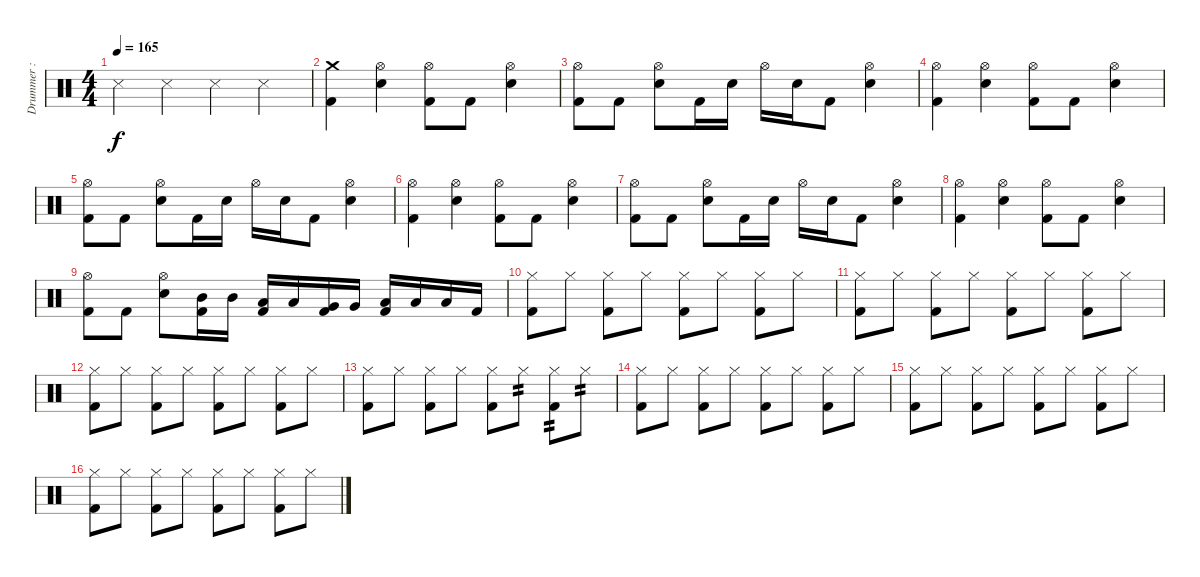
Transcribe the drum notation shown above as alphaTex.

\track ("Drummer : Tainaka Ritsu - Chan" "Drummer : ") {instrument percussion}
\staff {score}
\articulation defaults
\ts (4 4)
\tempo 165
\clef neutral
\ks c "Snare (side stick) 3".4{dy f} "Snare (side stick) 3".4 "Snare (side stick) 3".4 "Snare (side stick) 3".4
|
("Crash medium (hit)" "Kick (hit) 2").4 ("Hi-Hat (open)" "Electric Snare (hit)").4 ("Hi-Hat (open)" "Kick (hit) 2").8 "Kick (hit) 2".8 ("Hi-Hat (open)" "Electric Snare (hit)").4 |
("Hi-Hat (open)" "Kick (hit) 2").8 "Kick (hit) 2".8 ("Hi-Hat (open)" "Electric Snare (hit)").8 "Kick (hit) 2".16 "Electric Snare (hit)".16 "Hi-Hat (open)".16 "Electric Snare (hit)".16 "Kick (hit) 2".8 ("Hi-Hat (open)" "Electric Snare (hit)").4 |
("Hi-Hat (open)" "Kick (hit) 2").4 ("Hi-Hat (open)" "Electric Snare (hit)").4 ("Hi-Hat (open)" "Kick (hit) 2").8 "Kick (hit) 2".8 ("Hi-Hat (open)" "Electric Snare (hit)").4 |
("Hi-Hat (open)" "Kick (hit) 2").8 "Kick (hit) 2".8 ("Hi-Hat (open)" "Electric Snare (hit)").8 "Kick (hit) 2".16 "Electric Snare (hit)".16 "Hi-Hat (open)".16 "Electric Snare (hit)".16 "Kick (hit) 2".8 ("Hi-Hat (open)" "Electric Snare (hit)").4 |
("Hi-Hat (open)" "Kick (hit) 2").4 ("Hi-Hat (open)" "Electric Snare (hit)").4 ("Hi-Hat (open)" "Kick (hit) 2").8 "Kick (hit) 2".8 ("Hi-Hat (open)" "Electric Snare (hit)").4 |
("Hi-Hat (open)" "Kick (hit) 2").8 "Kick (hit) 2".8 ("Hi-Hat (open)" "Electric Snare (hit)").8 "Kick (hit) 2".16 "Electric Snare (hit)".16 "Hi-Hat (open)".16 "Electric Snare (hit)".16 "Kick (hit) 2".8 ("Hi-Hat (open)" "Electric Snare (hit)").4 |
("Hi-Hat (open)" "Kick (hit) 2").4 ("Hi-Hat (open)" "Electric Snare (hit)").4 ("Hi-Hat (open)" "Kick (hit) 2").8 "Kick (hit) 2".8 ("Hi-Hat (open)" "Electric Snare (hit)").4 |
("Hi-Hat (open)" "Kick (hit) 2").8 "Kick (hit) 2".8 ("Hi-Hat (open)" "Electric Snare (hit)").8 ("Mid Tom (hit)" "Kick (hit) 2").16 "Mid Tom (hit)".16 ("Low Tom (hit)" "Kick (hit) 2").16 "Low Tom (hit)".16 ("Very Low Tom (hit)" "Kick (hit) 2").16 "Very Low Tom (hit)".16 ("Low Floor Tom (hit)" "Kick (hit) 2").16 "Low Floor Tom (hit)".16 "Low Floor Tom (hit)".16 "Kick (hit) 2".16 |
("Hi-Hat (closed)" "Kick (hit) 2").8 "Hi-Hat (closed)".8 ("Hi-Hat (closed)" "Kick (hit) 2").8 "Hi-Hat (closed)".8 ("Hi-Hat (closed)" "Kick (hit) 2").8 "Hi-Hat (closed)".8 ("Hi-Hat (closed)" "Kick (hit) 2").8 "Hi-Hat (closed)".8 |
("Hi-Hat (closed)" "Kick (hit) 2").8 "Hi-Hat (closed)".8 ("Hi-Hat (closed)" "Kick (hit) 2").8 "Hi-Hat (closed)".8 ("Hi-Hat (closed)" "Kick (hit) 2").8 "Hi-Hat (closed)".8 ("Hi-Hat (closed)" "Kick (hit) 2").8 "Hi-Hat (closed)".8 |
("Hi-Hat (closed)" "Kick (hit) 2").8 "Hi-Hat (closed)".8 ("Hi-Hat (closed)" "Kick (hit) 2").8 "Hi-Hat (closed)".8 ("Hi-Hat (closed)" "Kick (hit) 2").8 "Hi-Hat (closed)".8 ("Hi-Hat (closed)" "Kick (hit) 2").8 "Hi-Hat (closed)".8 |
("Hi-Hat (closed)" "Kick (hit) 2").8 "Hi-Hat (closed)".8 ("Hi-Hat (closed)" "Kick (hit) 2").8 "Hi-Hat (closed)".8 ("Hi-Hat (closed)" "Kick (hit) 2").8 "Hi-Hat (closed)".8{tp 2} ("Hi-Hat (closed)" "Kick (hit) 2").8{tp 2} "Hi-Hat (closed)".8{tp 2} |
("Hi-Hat (closed)" "Kick (hit) 2").8 "Hi-Hat (closed)".8 ("Hi-Hat (closed)" "Kick (hit) 2").8 "Hi-Hat (closed)".8 ("Hi-Hat (closed)" "Kick (hit) 2").8 "Hi-Hat (closed)".8 ("Hi-Hat (closed)" "Kick (hit) 2").8 "Hi-Hat (closed)".8 |
("Hi-Hat (closed)" "Kick (hit) 2").8 "Hi-Hat (closed)".8 ("Hi-Hat (closed)" "Kick (hit) 2").8 "Hi-Hat (closed)".8 ("Hi-Hat (closed)" "Kick (hit) 2").8 "Hi-Hat (closed)".8 ("Hi-Hat (closed)" "Kick (hit) 2").8 "Hi-Hat (closed)".8 |
("Hi-Hat (closed)" "Kick (hit) 2").8 "Hi-Hat (closed)".8 ("Hi-Hat (closed)" "Kick (hit) 2").8 "Hi-Hat (closed)".8 ("Hi-Hat (closed)" "Kick (hit) 2").8 "Hi-Hat (closed)".8 ("Hi-Hat (closed)" "Kick (hit) 2").8 "Hi-Hat (closed)".8
